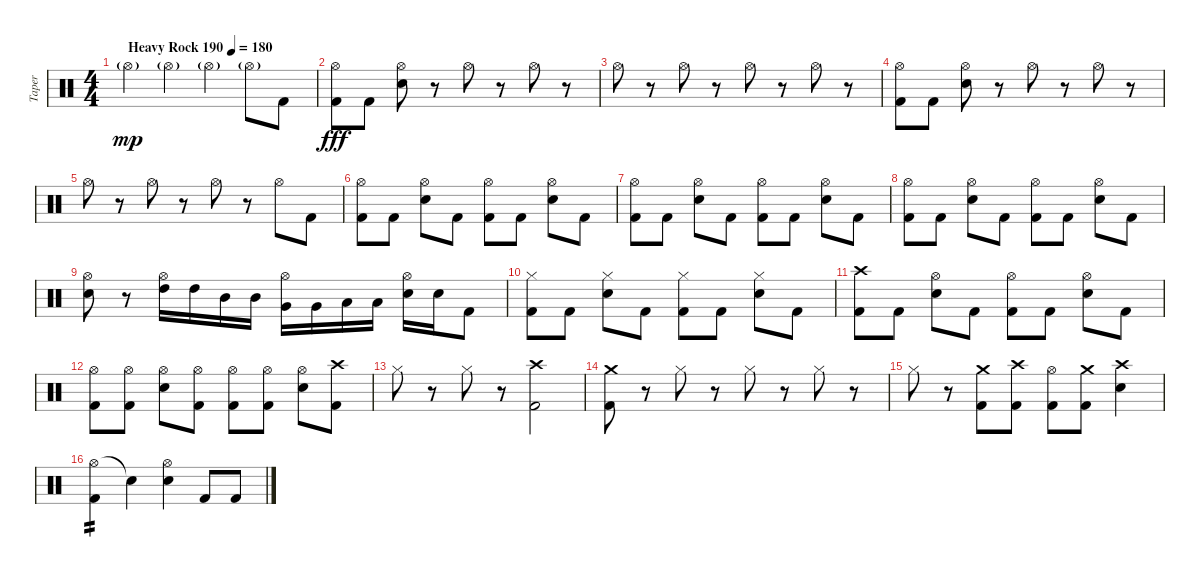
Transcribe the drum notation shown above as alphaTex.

\track ("Taper" "Taper") {instrument percussion}
\staff {score}
\articulation defaults
\ts (4 4)
\tempo (180 "Heavy Rock 190")
\clef neutral
\ks c "Hi-Hat (open)"{g}.4{dy mp} "Hi-Hat (open)"{g}.4 "Hi-Hat (open)"{g}.4 "Hi-Hat (open)"{g}.8 "Kick (hit) 2".8
|
("Hi-Hat (open)" "Kick (hit) 2").8{dy fff} "Kick (hit) 2".8 ("Hi-Hat (open)" "Snare (hit) 2").8 r.8 "Hi-Hat (open)".8 r.8 "Hi-Hat (open)".8 r.8 |
"Hi-Hat (open)".8 r.8 "Hi-Hat (open)".8 r.8 "Hi-Hat (open)".8 r.8 "Hi-Hat (open)".8 r.8 |
("Hi-Hat (open)" "Kick (hit) 2").8 "Kick (hit) 2".8 ("Hi-Hat (open)" "Snare (hit) 2").8 r.8 "Hi-Hat (open)".8 r.8 "Hi-Hat (open)".8 r.8 |
"Hi-Hat (open)".8 r.8 "Hi-Hat (open)".8 r.8 "Hi-Hat (open)".8 r.8 "Hi-Hat (open)".8 "Kick (hit) 2".8 |
("Hi-Hat (open)" "Kick (hit) 2").8 "Kick (hit) 2".8 ("Hi-Hat (open)" "Snare (hit) 2").8 "Kick (hit) 2".8 ("Hi-Hat (open)" "Kick (hit) 2").8 "Kick (hit) 2".8 ("Hi-Hat (open)" "Snare (hit) 2").8 "Kick (hit) 2".8 |
("Hi-Hat (open)" "Kick (hit) 2").8 "Kick (hit) 2".8 ("Hi-Hat (open)" "Snare (hit) 2").8 "Kick (hit) 2".8 ("Hi-Hat (open)" "Kick (hit) 2").8 "Kick (hit) 2".8 ("Hi-Hat (open)" "Snare (hit) 2").8 "Kick (hit) 2".8 |
("Hi-Hat (open)" "Kick (hit) 2").8 "Kick (hit) 2".8 ("Hi-Hat (open)" "Snare (hit) 2").8 "Kick (hit) 2".8 ("Hi-Hat (open)" "Kick (hit) 2").8 "Kick (hit) 2".8 ("Hi-Hat (open)" "Snare (hit) 2").8 "Kick (hit) 2".8 |
("Hi-Hat (open)" "Snare (hit) 2").8 r.8 ("Hi-Hat (open)" "High Tom (hit)").16 "High Tom (hit)".16 "Mid Tom (hit)".16 "Mid Tom (hit)".16 ("Hi-Hat (open)" "Very Low Tom (hit)").16 "Very Low Tom (hit)".16 "Low Floor Tom (hit)".16 "Low Floor Tom (hit)".16 ("Hi-Hat (open)" "Snare (hit) 2").16 "Snare (hit) 2".16 "Kick (hit) 2".8 |
("Hi-Hat (closed)" "Kick (hit) 2").8 "Kick (hit) 2".8 ("Hi-Hat (closed)" "Snare (hit) 2").8 "Kick (hit) 2".8 ("Hi-Hat (closed)" "Kick (hit) 2").8 "Kick (hit) 2".8 ("Hi-Hat (closed)" "Snare (hit) 2").8 "Kick (hit) 2".8 |
("Crash high (hit)" "Kick (hit) 2").8 "Kick (hit) 2".8 ("Hi-Hat (open)" "Snare (hit) 2").8 "Kick (hit) 2".8 ("Hi-Hat (open)" "Kick (hit) 2").8 "Kick (hit) 2".8 ("Hi-Hat (open)" "Snare (hit) 2").8 "Kick (hit) 2".8 |
("Hi-Hat (open)" "Kick (hit) 2").8 ("Hi-Hat (open)" "Kick (hit) 2").8 ("Hi-Hat (open)" "Snare (hit) 2").8 ("Hi-Hat (open)" "Kick (hit) 2").8 ("Hi-Hat (open)" "Kick (hit) 2").8 ("Hi-Hat (open)" "Kick (hit) 2").8 ("Hi-Hat (open)" "Snare (hit) 2").8 ("Crash high (hit)" "Kick (hit) 2").8 |
"Hi-Hat (closed)".8 r.8 "Hi-Hat (closed)".8 r.8 ("Crash high (hit)" "Kick (hit) 2").2 |
("Crash medium (hit)" "Kick (hit) 2").8 r.8 "Hi-Hat (closed)".8 r.8 "Hi-Hat (closed)".8 r.8 "Hi-Hat (closed)".8 r.8 |
"Hi-Hat (closed)".8 r.8 ("Crash medium (hit)" "Kick (hit) 2").8 ("Crash high (hit)" "Kick (hit) 2").8 ("Hi-Hat (open)" "Kick (hit) 2").8 ("Crash medium (hit)" "Kick (hit) 2").8 ("Crash high (hit)" "Snare (hit) 2").4 |
("Hi-Hat (open)" "Kick (hit) 2").4{tp 2} "Snare (hit)"{t}.4 ("Hi-Hat (open)" "Snare (hit) 2").4 "Kick (hit) 2".8 "Kick (hit) 2".8
